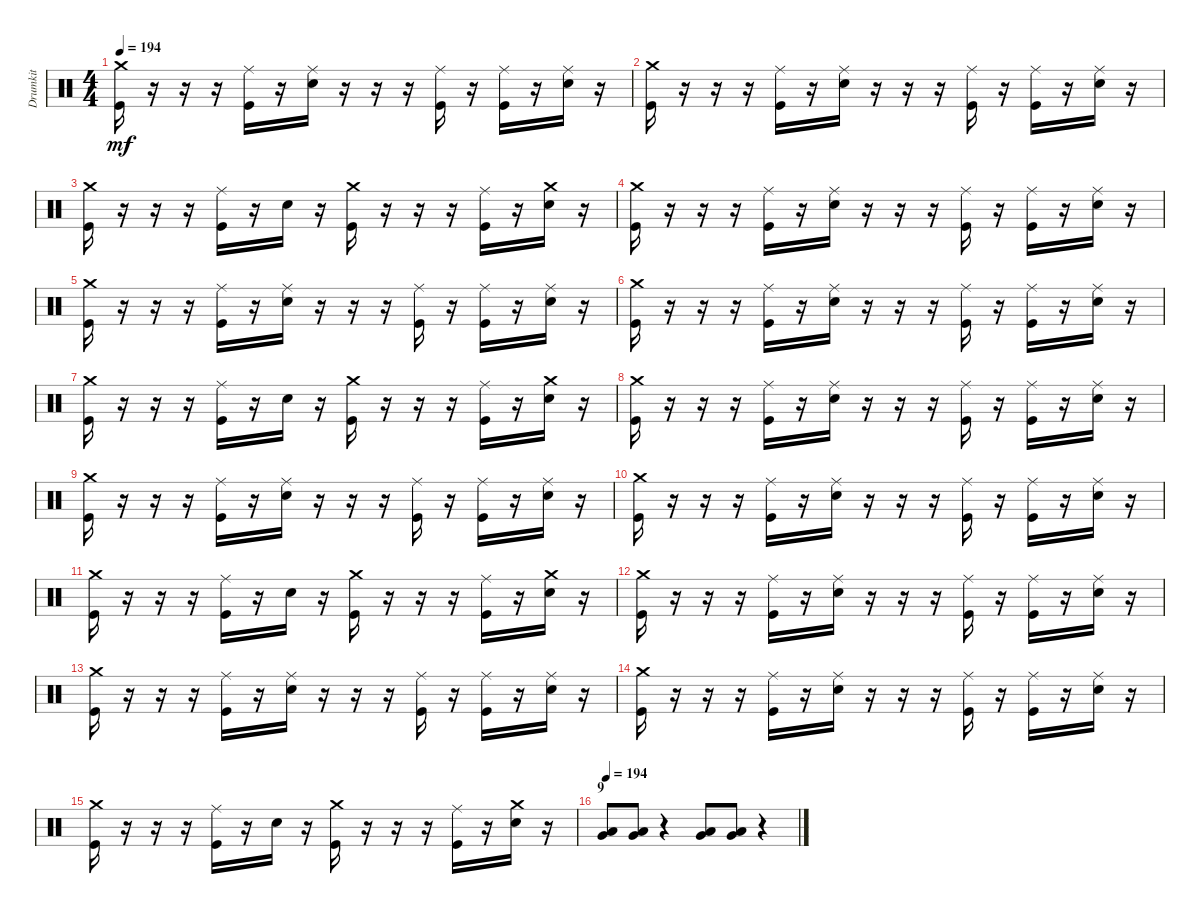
\track ("Drumkit" "Drumkit") {instrument percussion}
\staff {score}
\articulation defaults
\ts (4 4)
\tempo 194
\clef neutral
\ks c
("Kick (hit)" "Crash medium (hit)").16{dy mf} r.16 r.16 r.16 ("Kick (hit)" "Ride (middle)").16 r.16 ("Snare (hit) 2" "Ride (middle)").16 r.16 r.16 r.16 ("Kick (hit)" "Ride (middle)").16 r.16 ("Kick (hit)" "Ride (middle)").16 r.16 ("Snare (hit) 2" "Ride (middle)").16 r.16 |
("Kick (hit)" "Crash medium (hit)").16 r.16 r.16 r.16 ("Kick (hit)" "Ride (middle)").16 r.16 ("Snare (hit) 2" "Ride (middle)").16 r.16 r.16 r.16 ("Kick (hit)" "Ride (middle)").16 r.16 ("Kick (hit)" "Ride (middle)").16 r.16 ("Snare (hit) 2" "Ride (middle)").16 r.16 |
("Kick (hit)" "Crash medium (hit)").16 r.16 r.16 r.16 ("Kick (hit)" "Ride (middle)").16 r.16 "Snare (hit) 2".16 r.16 ("Kick (hit)" "Crash medium (hit)").16 r.16 r.16 r.16 ("Kick (hit)" "Ride (middle)").16 r.16 ("Snare (hit) 2" "Crash medium (hit)").16 r.16 |
("Kick (hit)" "Crash medium (hit)").16 r.16 r.16 r.16 ("Kick (hit)" "Ride (middle)").16 r.16 ("Snare (hit) 2" "Ride (middle)").16 r.16 r.16 r.16 ("Kick (hit)" "Ride (middle)").16 r.16 ("Kick (hit)" "Ride (middle)").16 r.16 ("Snare (hit) 2" "Ride (middle)").16 r.16 |
("Kick (hit)" "Crash medium (hit)").16 r.16 r.16 r.16 ("Kick (hit)" "Ride (middle)").16 r.16 ("Snare (hit) 2" "Ride (middle)").16 r.16 r.16 r.16 ("Kick (hit)" "Ride (middle)").16 r.16 ("Kick (hit)" "Ride (middle)").16 r.16 ("Snare (hit) 2" "Ride (middle)").16 r.16 |
("Kick (hit)" "Crash medium (hit)").16 r.16 r.16 r.16 ("Kick (hit)" "Ride (middle)").16 r.16 ("Snare (hit) 2" "Ride (middle)").16 r.16 r.16 r.16 ("Kick (hit)" "Ride (middle)").16 r.16 ("Kick (hit)" "Ride (middle)").16 r.16 ("Snare (hit) 2" "Ride (middle)").16 r.16 |
("Kick (hit)" "Crash medium (hit)").16 r.16 r.16 r.16 ("Kick (hit)" "Ride (middle)").16 r.16 "Snare (hit) 2".16 r.16 ("Kick (hit)" "Crash medium (hit)").16 r.16 r.16 r.16 ("Kick (hit)" "Ride (middle)").16 r.16 ("Snare (hit) 2" "Crash medium (hit)").16 r.16 |
("Kick (hit)" "Crash medium (hit)").16 r.16 r.16 r.16 ("Kick (hit)" "Ride (middle)").16 r.16 ("Snare (hit) 2" "Ride (middle)").16 r.16 r.16 r.16 ("Kick (hit)" "Ride (middle)").16 r.16 ("Kick (hit)" "Ride (middle)").16 r.16 ("Snare (hit) 2" "Ride (middle)").16 r.16 |
("Kick (hit)" "Crash medium (hit)").16 r.16 r.16 r.16 ("Kick (hit)" "Ride (middle)").16 r.16 ("Snare (hit) 2" "Ride (middle)").16 r.16 r.16 r.16 ("Kick (hit)" "Ride (middle)").16 r.16 ("Kick (hit)" "Ride (middle)").16 r.16 ("Snare (hit) 2" "Ride (middle)").16 r.16 |
("Kick (hit)" "Crash medium (hit)").16 r.16 r.16 r.16 ("Kick (hit)" "Ride (middle)").16 r.16 ("Snare (hit) 2" "Ride (middle)").16 r.16 r.16 r.16 ("Kick (hit)" "Ride (middle)").16 r.16 ("Kick (hit)" "Ride (middle)").16 r.16 ("Snare (hit) 2" "Ride (middle)").16 r.16 |
("Kick (hit)" "Crash medium (hit)").16 r.16 r.16 r.16 ("Kick (hit)" "Ride (middle)").16 r.16 "Snare (hit) 2".16 r.16 ("Kick (hit)" "Crash medium (hit)").16 r.16 r.16 r.16 ("Kick (hit)" "Ride (middle)").16 r.16 ("Snare (hit) 2" "Crash medium (hit)").16 r.16 |
("Kick (hit)" "Crash medium (hit)").16 r.16 r.16 r.16 ("Kick (hit)" "Ride (middle)").16 r.16 ("Snare (hit) 2" "Ride (middle)").16 r.16 r.16 r.16 ("Kick (hit)" "Ride (middle)").16 r.16 ("Kick (hit)" "Ride (middle)").16 r.16 ("Snare (hit) 2" "Ride (middle)").16 r.16 |
("Kick (hit)" "Crash medium (hit)").16 r.16 r.16 r.16 ("Kick (hit)" "Ride (middle)").16 r.16 ("Snare (hit) 2" "Ride (middle)").16 r.16 r.16 r.16 ("Kick (hit)" "Ride (middle)").16 r.16 ("Kick (hit)" "Ride (middle)").16 r.16 ("Snare (hit) 2" "Ride (middle)").16 r.16 |
("Kick (hit)" "Crash medium (hit)").16 r.16 r.16 r.16 ("Kick (hit)" "Ride (middle)").16 r.16 ("Snare (hit) 2" "Ride (middle)").16 r.16 r.16 r.16 ("Kick (hit)" "Ride (middle)").16 r.16 ("Kick (hit)" "Ride (middle)").16 r.16 ("Snare (hit) 2" "Ride (middle)").16 r.16 |
("Kick (hit)" "Crash medium (hit)").16 r.16 r.16 r.16 ("Kick (hit)" "Ride (middle)").16 r.16 "Snare (hit) 2".16 r.16 ("Kick (hit)" "Crash medium (hit)").16 r.16 r.16 r.16 ("Kick (hit)" "Ride (middle)").16 r.16 ("Snare (hit) 2" "Crash medium (hit)").16 r.16 |
\section ("" "9")
\tempo 194
("Low Floor Tom (hit)" "Very Low Tom (hit)").8 ("Low Floor Tom (hit)" "Very Low Tom (hit)").8 r.4 ("Low Floor Tom (hit)" "Very Low Tom (hit)").8 ("Low Floor Tom (hit)" "Very Low Tom (hit)").8 r.4
